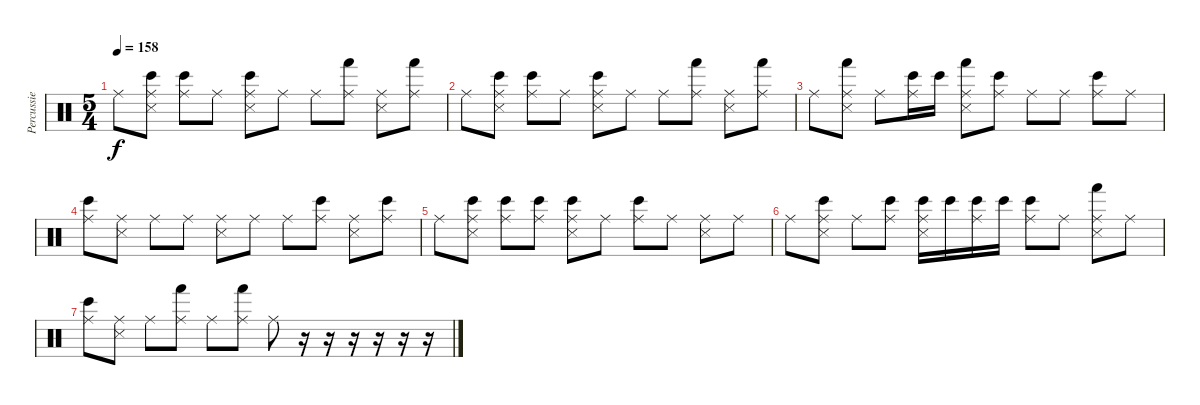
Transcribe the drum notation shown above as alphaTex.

\track ("Percussie" "Percussie") {instrument percussion}
\staff {score}
\articulation defaults
\ts (5 4)
\tempo 158
\clef neutral
\ks c "Ride (middle)".8{dy f}
("Bongo High (hit)" "Snare (side stick) 3" "Ride (middle)").8 ("Bongo High (hit)" "Ride (middle)").8 "Ride (middle)".8 ("Bongo High (hit)" "Snare (side stick) 3" "Ride (middle)").8 "Ride (middle)".8 "Ride (middle)".8 ("Hand (hit)" "Ride (middle)").8 ("Snare (side stick) 3" "Ride (middle)").8 ("Hand (hit)" "Ride (middle)").8 |
"Ride (middle)".8 ("Bongo High (hit)" "Snare (side stick) 3" "Ride (middle)").8 ("Bongo High (hit)" "Ride (middle)").8 "Ride (middle)".8 ("Bongo High (hit)" "Snare (side stick) 3" "Ride (middle)").8 "Ride (middle)".8 "Ride (middle)".8 ("Hand (hit)" "Ride (middle)").8 ("Snare (side stick) 3" "Ride (middle)").8 ("Hand (hit)" "Ride (middle)").8 |
"Ride (middle)".8 ("Ride (middle)" "Snare (side stick) 3" "Hand (hit)").8 "Ride (middle)".8 ("Bongo High (hit)" "Ride (middle)").16 "Bongo High (hit)".16 ("Ride (middle)" "Snare (side stick) 3" "Hand (hit)").8 ("Bongo High (hit)" "Ride (middle)").8 "Ride (middle)".8 "Ride (middle)".8 ("Bongo High (hit)" "Ride (middle)").8 "Ride (middle)".8 |
("Bongo High (hit)" "Ride (middle)").8 ("Snare (side stick) 3" "Ride (middle)").8 "Ride (middle)".8 "Ride (middle)".8 ("Snare (side stick) 3" "Ride (middle)").8 "Ride (middle)".8 "Ride (middle)".8 ("Bongo High (hit)" "Ride (middle)").8 ("Snare (side stick) 3" "Ride (middle)").8 ("Bongo High (hit)" "Ride (middle)").8 |
"Ride (middle)".8 ("Ride (middle)" "Snare (side stick) 3" "Bongo High (hit)").8 ("Ride (middle)" "Bongo High (hit)").8 ("Ride (middle)" "Bongo High (hit)").8 ("Ride (middle)" "Bongo High (hit)" "Snare (side stick) 3").8 "Ride (middle)".8 ("Ride (middle)" "Bongo High (hit)").8 "Ride (middle)".8 ("Ride (middle)" "Snare (side stick) 3").8 "Ride (middle)".8 |
"Ride (middle)".8 ("Ride (middle)" "Snare (side stick) 3" "Bongo High (hit)").8 "Ride (middle)".8 ("Ride (middle)" "Bongo High (hit)").8 ("Ride (middle)" "Snare (side stick) 3" "Bongo High (hit)").16 "Bongo High (hit)".16 ("Ride (middle)" "Bongo High (hit)").16 "Bongo High (hit)".16 ("Ride (middle)" "Bongo High (hit)").8 "Ride (middle)".8 ("Ride (middle)" "Snare (side stick) 3" "Hand (hit)").8 "Ride (middle)".8 |
("Ride (middle)" "Bongo High (hit)").8 ("Ride (middle)" "Snare (side stick) 3").8 "Ride (middle)".8 ("Ride (middle)" "Hand (hit)").8 "Ride (middle)".8 ("Ride (middle)" "Hand (hit)").8 "Ride (middle)".8 r.16 r.16 r.16 r.16 r.16 r.16
